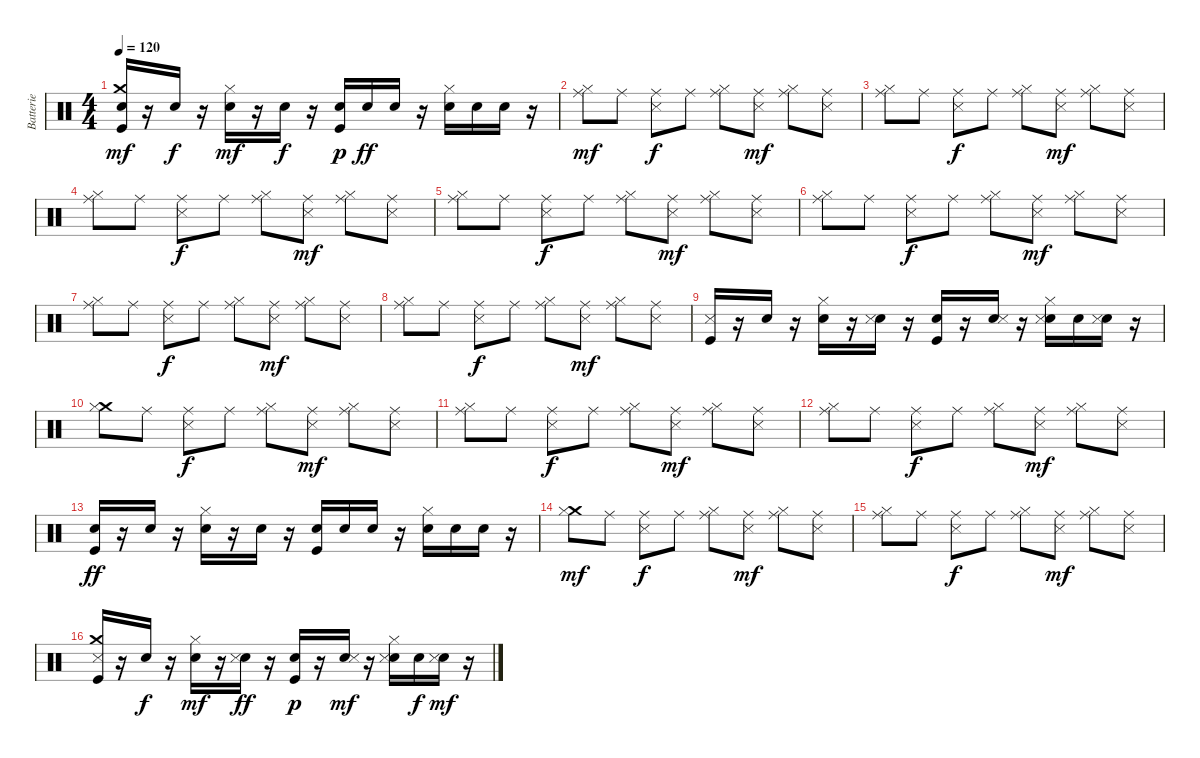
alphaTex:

\track ("Batterie" "Batterie") {instrument percussion}
\staff {score}
\articulation defaults
\ts (4 4)
\tempo 120
\clef neutral
\ks c
("Kick (hit)" "Crash medium (hit)" "Snare (hit) 2").16{dy mf} r.16 "Snare (hit) 2".16{dy f} r.16 ("Hi-Hat (closed)" "Snare (hit) 2").16{dy mf} r.16 "Snare (hit) 2".16{dy f} r.16 ("Kick (hit)" "Snare (hit) 2").16{dy p} "Snare (hit) 2".16{dy ff} "Snare (hit) 2".16 r.16 ("Hi-Hat (closed)" "Snare (hit) 2").16 "Snare (hit) 2".16 "Snare (hit) 2".16 r.16 |
("Ride (middle)" "Hi-Hat (closed)").8{dy mf} "Ride (middle)".8 ("Ride (middle)" "Snare (side stick) 3").8{dy f} "Ride (middle)".8 ("Ride (middle)" "Hi-Hat (closed)").8 ("Ride (middle)" "Snare (side stick) 3").8{dy mf} ("Ride (middle)" "Hi-Hat (closed)").8 ("Ride (middle)" "Snare (side stick) 3").8 |
("Ride (middle)" "Hi-Hat (closed)").8 "Ride (middle)".8 ("Ride (middle)" "Snare (side stick) 3").8{dy f} "Ride (middle)".8 ("Ride (middle)" "Hi-Hat (closed)").8 ("Ride (middle)" "Snare (side stick) 3").8{dy mf} ("Ride (middle)" "Hi-Hat (closed)").8 ("Ride (middle)" "Snare (side stick) 3").8 |
("Ride (middle)" "Hi-Hat (closed)").8 "Ride (middle)".8 ("Ride (middle)" "Snare (side stick) 3").8{dy f} "Ride (middle)".8 ("Ride (middle)" "Hi-Hat (closed)").8 ("Ride (middle)" "Snare (side stick) 3").8{dy mf} ("Ride (middle)" "Hi-Hat (closed)").8 ("Ride (middle)" "Snare (side stick) 3").8 |
("Ride (middle)" "Hi-Hat (closed)").8 "Ride (middle)".8 ("Ride (middle)" "Snare (side stick) 3").8{dy f} "Ride (middle)".8 ("Ride (middle)" "Hi-Hat (closed)").8 ("Ride (middle)" "Snare (side stick) 3").8{dy mf} ("Ride (middle)" "Hi-Hat (closed)").8 ("Ride (middle)" "Snare (side stick) 3").8 |
("Ride (middle)" "Hi-Hat (closed)").8 "Ride (middle)".8 ("Ride (middle)" "Snare (side stick) 3").8{dy f} "Ride (middle)".8 ("Ride (middle)" "Hi-Hat (closed)").8 ("Ride (middle)" "Snare (side stick) 3").8{dy mf} ("Ride (middle)" "Hi-Hat (closed)").8 ("Ride (middle)" "Snare (side stick) 3").8 |
("Ride (middle)" "Hi-Hat (closed)").8 "Ride (middle)".8 ("Ride (middle)" "Snare (side stick) 3").8{dy f} "Ride (middle)".8 ("Ride (middle)" "Hi-Hat (closed)").8 ("Ride (middle)" "Snare (side stick) 3").8{dy mf} ("Ride (middle)" "Hi-Hat (closed)").8 ("Ride (middle)" "Snare (side stick) 3").8 |
("Ride (middle)" "Hi-Hat (closed)").8 "Ride (middle)".8 ("Ride (middle)" "Snare (side stick) 3").8{dy f} "Ride (middle)".8 ("Ride (middle)" "Hi-Hat (closed)").8 ("Ride (middle)" "Snare (side stick) 3").8{dy mf} ("Ride (middle)" "Hi-Hat (closed)").8 ("Ride (middle)" "Snare (side stick) 3").8 |
("Kick (hit)" "Snare (side stick) 3").16 r.16 "Snare (hit) 2".16 r.16 ("Hi-Hat (closed)" "Snare (hit) 2").16 r.16 ("Snare (hit) 2" "Snare (side stick) 3").16 r.16 ("Kick (hit)" "Snare (hit) 2").16 r.16 ("Snare (hit) 2" "Snare (side stick) 3").16 r.16 ("Hi-Hat (closed)" "Snare (hit) 2" "Snare (side stick) 3").16 "Snare (hit) 2".16 ("Snare (hit) 2" "Snare (side stick) 3").16 r.16 |
("Crash medium (hit)" "Hi-Hat (closed)").8 "Ride (middle)".8 ("Ride (middle)" "Snare (side stick) 3").8{dy f} "Ride (middle)".8 ("Ride (middle)" "Hi-Hat (closed)").8 ("Ride (middle)" "Snare (side stick) 3").8{dy mf} ("Ride (middle)" "Hi-Hat (closed)").8 ("Ride (middle)" "Snare (side stick) 3").8 |
("Ride (middle)" "Hi-Hat (closed)").8 "Ride (middle)".8 ("Ride (middle)" "Snare (side stick) 3").8{dy f} "Ride (middle)".8 ("Ride (middle)" "Hi-Hat (closed)").8 ("Ride (middle)" "Snare (side stick) 3").8{dy mf} ("Ride (middle)" "Hi-Hat (closed)").8 ("Ride (middle)" "Snare (side stick) 3").8 |
("Ride (middle)" "Hi-Hat (closed)").8 "Ride (middle)".8 ("Ride (middle)" "Snare (side stick) 3").8{dy f} "Ride (middle)".8 ("Ride (middle)" "Hi-Hat (closed)").8 ("Ride (middle)" "Snare (side stick) 3").8{dy mf} ("Ride (middle)" "Hi-Hat (closed)").8 ("Ride (middle)" "Snare (side stick) 3").8 |
("Kick (hit)" "Snare (hit) 2").16{dy ff} r.16 "Snare (hit) 2".16 r.16 ("Hi-Hat (closed)" "Snare (hit) 2").16 r.16 "Snare (hit) 2".16 r.16 ("Kick (hit)" "Snare (hit) 2").16 "Snare (hit) 2".16 "Snare (hit) 2".16 r.16 ("Hi-Hat (closed)" "Snare (hit) 2").16 "Snare (hit) 2".16 "Snare (hit) 2".16 r.16 |
("Crash medium (hit)" "Hi-Hat (closed)").8{dy mf} "Ride (middle)".8 ("Ride (middle)" "Snare (side stick) 3").8{dy f} "Ride (middle)".8 ("Ride (middle)" "Hi-Hat (closed)").8 ("Ride (middle)" "Snare (side stick) 3").8{dy mf} ("Ride (middle)" "Hi-Hat (closed)").8 ("Ride (middle)" "Snare (side stick) 3").8 |
("Ride (middle)" "Hi-Hat (closed)").8 "Ride (middle)".8 ("Ride (middle)" "Snare (side stick) 3").8{dy f} "Ride (middle)".8 ("Ride (middle)" "Hi-Hat (closed)").8 ("Ride (middle)" "Snare (side stick) 3").8{dy mf} ("Ride (middle)" "Hi-Hat (closed)").8 ("Ride (middle)" "Snare (side stick) 3").8 |
("Kick (hit)" "Crash medium (hit)" "Snare (side stick) 3").16 r.16 "Snare (hit) 2".16{dy f} r.16 ("Hi-Hat (closed)" "Snare (hit) 2").16{dy mf} r.16 ("Snare (hit) 2" "Snare (side stick) 3").16{dy ff} r.16 ("Kick (hit)" "Snare (hit) 2").16{dy p} r.16 ("Snare (hit) 2" "Snare (side stick) 3").16{dy mf} r.16 ("Hi-Hat (closed)" "Snare (hit) 2" "Snare (side stick) 3").16 "Snare (hit) 2".16{dy f} ("Snare (hit) 2" "Snare (side stick) 3").16{dy mf} r.16
